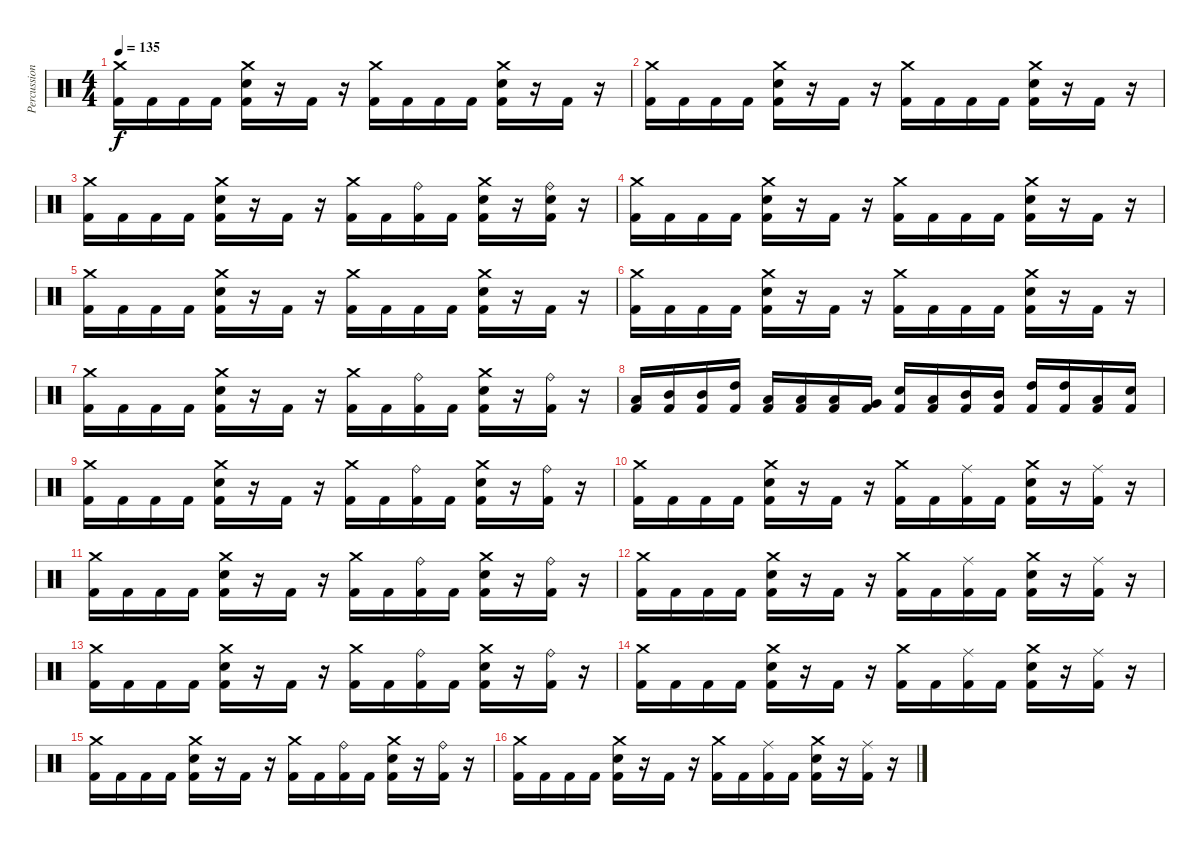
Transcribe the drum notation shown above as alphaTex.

\track ("Percussion" "Percussion") {instrument percussion}
\staff {score}
\articulation defaults
\ts (4 4)
\tempo 135
\clef neutral
\ks c
("Crash medium (hit)" "Kick (hit) 2").16{dy f} "Kick (hit) 2".16 "Kick (hit) 2".16 "Kick (hit) 2".16 ("Crash medium (hit)" "Electric Snare (hit)" "Kick (hit) 2").16 r.16 "Kick (hit) 2".16 r.16 ("Crash medium (hit)" "Kick (hit) 2").16 "Kick (hit) 2".16 "Kick (hit) 2".16 "Kick (hit) 2".16 ("Crash medium (hit)" "Electric Snare (hit)" "Kick (hit) 2").16 r.16 "Kick (hit) 2".16 r.16 |
("Crash medium (hit)" "Kick (hit) 2").16 "Kick (hit) 2".16 "Kick (hit) 2".16 "Kick (hit) 2".16 ("Crash medium (hit)" "Electric Snare (hit)" "Kick (hit) 2").16 r.16 "Kick (hit) 2".16 r.16 ("Crash medium (hit)" "Kick (hit) 2").16 "Kick (hit) 2".16 "Kick (hit) 2".16 "Kick (hit) 2".16 ("Crash medium (hit)" "Electric Snare (hit)" "Kick (hit) 2").16 r.16 "Kick (hit) 2".16 r.16 |
("Crash medium (hit)" "Kick (hit) 2").16 "Kick (hit) 2".16 "Kick (hit) 2".16 "Kick (hit) 2".16 ("Crash medium (hit)" "Electric Snare (hit)" "Kick (hit) 2").16 r.16 "Kick (hit) 2".16 r.16 ("Crash medium (hit)" "Kick (hit) 2").16 "Kick (hit) 2".16 ("Ride (bell)" "Kick (hit) 2").16 "Kick (hit) 2".16 ("Crash medium (hit)" "Electric Snare (hit)" "Kick (hit) 2").16 r.16 ("Ride (bell)" "Electric Snare (hit)" "Kick (hit) 2").16 r.16 |
("Crash medium (hit)" "Kick (hit) 2").16 "Kick (hit) 2".16 "Kick (hit) 2".16 "Kick (hit) 2".16 ("Crash medium (hit)" "Electric Snare (hit)" "Kick (hit) 2").16 r.16 "Kick (hit) 2".16 r.16 ("Crash medium (hit)" "Kick (hit) 2").16 "Kick (hit) 2".16 "Kick (hit) 2".16 "Kick (hit) 2".16 ("Crash medium (hit)" "Electric Snare (hit)" "Kick (hit) 2").16 r.16 "Kick (hit) 2".16 r.16 |
("Crash medium (hit)" "Kick (hit) 2").16 "Kick (hit) 2".16 "Kick (hit) 2".16 "Kick (hit) 2".16 ("Crash medium (hit)" "Electric Snare (hit)" "Kick (hit) 2").16 r.16 "Kick (hit) 2".16 r.16 ("Crash medium (hit)" "Kick (hit) 2").16 "Kick (hit) 2".16 "Kick (hit) 2".16 "Kick (hit) 2".16 ("Crash medium (hit)" "Electric Snare (hit)" "Kick (hit) 2").16 r.16 "Kick (hit) 2".16 r.16 |
("Crash medium (hit)" "Kick (hit) 2").16 "Kick (hit) 2".16 "Kick (hit) 2".16 "Kick (hit) 2".16 ("Crash medium (hit)" "Electric Snare (hit)" "Kick (hit) 2").16 r.16 "Kick (hit) 2".16 r.16 ("Crash medium (hit)" "Kick (hit) 2").16 "Kick (hit) 2".16 "Kick (hit) 2".16 "Kick (hit) 2".16 ("Crash medium (hit)" "Electric Snare (hit)" "Kick (hit) 2").16 r.16 "Kick (hit) 2".16 r.16 |
("Crash medium (hit)" "Kick (hit) 2").16 "Kick (hit) 2".16 "Kick (hit) 2".16 "Kick (hit) 2".16 ("Crash medium (hit)" "Electric Snare (hit)" "Kick (hit) 2").16 r.16 "Kick (hit) 2".16 r.16 ("Crash medium (hit)" "Kick (hit) 2").16 "Kick (hit) 2".16 ("Ride (bell)" "Kick (hit) 2").16 "Kick (hit) 2".16 ("Crash medium (hit)" "Electric Snare (hit)" "Kick (hit) 2").16 r.16 ("Ride (bell)" "Kick (hit) 2").16 r.16 |
("Low Tom (hit)" "Kick (hit) 2").16 ("Mid Tom (hit)" "Kick (hit) 2").16 ("Mid Tom (hit)" "Kick (hit) 2").16 ("High Tom (hit)" "Kick (hit) 2").16 ("Low Tom (hit)" "Kick (hit) 2").16 ("Low Floor Tom (hit)" "Kick (hit) 2").16 ("Low Floor Tom (hit)" "Kick (hit) 2").16 ("Very Low Tom (hit)" "Kick (hit) 2").16 ("Electric Snare (hit)" "Kick (hit) 2").16 ("Low Tom (hit)" "Kick (hit) 2").16 ("Mid Tom (hit)" "Kick (hit) 2").16 ("Mid Tom (hit)" "Kick (hit) 2").16 ("High Tom (hit)" "Kick (hit) 2").16 ("High Tom (hit)" "Kick (hit) 2").16 ("Low Tom (hit)" "Kick (hit) 2").16 ("Electric Snare (hit)" "Kick (hit) 2").16 |
("Crash medium (hit)" "Kick (hit) 2").16 "Kick (hit) 2".16 "Kick (hit) 2".16 "Kick (hit) 2".16 ("Crash medium (hit)" "Electric Snare (hit)" "Kick (hit) 2").16 r.16 "Kick (hit) 2".16 r.16 ("Crash medium (hit)" "Kick (hit) 2").16 "Kick (hit) 2".16 ("Ride (bell)" "Kick (hit) 2").16 "Kick (hit) 2".16 ("Crash medium (hit)" "Electric Snare (hit)" "Kick (hit) 2").16 r.16 ("Ride (bell)" "Kick (hit) 2").16 r.16 |
("Crash medium (hit)" "Kick (hit) 2").16 "Kick (hit) 2".16 "Kick (hit) 2".16 "Kick (hit) 2".16 ("Crash medium (hit)" "Electric Snare (hit)" "Kick (hit) 2").16 r.16 "Kick (hit) 2".16 r.16 ("Crash medium (hit)" "Kick (hit) 2").16 "Kick (hit) 2".16 ("Ride (middle)" "Kick (hit) 2").16 "Kick (hit) 2".16 ("Crash medium (hit)" "Electric Snare (hit)" "Kick (hit) 2").16 r.16 ("Ride (middle)" "Kick (hit) 2").16 r.16 |
("Crash medium (hit)" "Kick (hit) 2").16 "Kick (hit) 2".16 "Kick (hit) 2".16 "Kick (hit) 2".16 ("Crash medium (hit)" "Electric Snare (hit)" "Kick (hit) 2").16 r.16 "Kick (hit) 2".16 r.16 ("Crash medium (hit)" "Kick (hit) 2").16 "Kick (hit) 2".16 ("Ride (bell)" "Kick (hit) 2").16 "Kick (hit) 2".16 ("Crash medium (hit)" "Electric Snare (hit)" "Kick (hit) 2").16 r.16 ("Ride (bell)" "Kick (hit) 2").16 r.16 |
("Crash medium (hit)" "Kick (hit) 2").16 "Kick (hit) 2".16 "Kick (hit) 2".16 "Kick (hit) 2".16 ("Crash medium (hit)" "Electric Snare (hit)" "Kick (hit) 2").16 r.16 "Kick (hit) 2".16 r.16 ("Crash medium (hit)" "Kick (hit) 2").16 "Kick (hit) 2".16 ("Ride (middle)" "Kick (hit) 2").16 "Kick (hit) 2".16 ("Crash medium (hit)" "Electric Snare (hit)" "Kick (hit) 2").16 r.16 ("Ride (middle)" "Kick (hit) 2").16 r.16 |
("Crash medium (hit)" "Kick (hit) 2").16 "Kick (hit) 2".16 "Kick (hit) 2".16 "Kick (hit) 2".16 ("Crash medium (hit)" "Electric Snare (hit)" "Kick (hit) 2").16 r.16 "Kick (hit) 2".16 r.16 ("Crash medium (hit)" "Kick (hit) 2").16 "Kick (hit) 2".16 ("Ride (bell)" "Kick (hit) 2").16 "Kick (hit) 2".16 ("Crash medium (hit)" "Electric Snare (hit)" "Kick (hit) 2").16 r.16 ("Ride (bell)" "Kick (hit) 2").16 r.16 |
("Crash medium (hit)" "Kick (hit) 2").16 "Kick (hit) 2".16 "Kick (hit) 2".16 "Kick (hit) 2".16 ("Crash medium (hit)" "Electric Snare (hit)" "Kick (hit) 2").16 r.16 "Kick (hit) 2".16 r.16 ("Crash medium (hit)" "Kick (hit) 2").16 "Kick (hit) 2".16 ("Ride (middle)" "Kick (hit) 2").16 "Kick (hit) 2".16 ("Crash medium (hit)" "Electric Snare (hit)" "Kick (hit) 2").16 r.16 ("Ride (middle)" "Kick (hit) 2").16 r.16 |
("Crash medium (hit)" "Kick (hit) 2").16 "Kick (hit) 2".16 "Kick (hit) 2".16 "Kick (hit) 2".16 ("Crash medium (hit)" "Electric Snare (hit)" "Kick (hit) 2").16 r.16 "Kick (hit) 2".16 r.16 ("Crash medium (hit)" "Kick (hit) 2").16 "Kick (hit) 2".16 ("Ride (bell)" "Kick (hit) 2").16 "Kick (hit) 2".16 ("Crash medium (hit)" "Electric Snare (hit)" "Kick (hit) 2").16 r.16 ("Ride (bell)" "Kick (hit) 2").16 r.16 |
("Crash medium (hit)" "Kick (hit) 2").16 "Kick (hit) 2".16 "Kick (hit) 2".16 "Kick (hit) 2".16 ("Crash medium (hit)" "Electric Snare (hit)" "Kick (hit) 2").16 r.16 "Kick (hit) 2".16 r.16 ("Crash medium (hit)" "Kick (hit) 2").16 "Kick (hit) 2".16 ("Ride (middle)" "Kick (hit) 2").16 "Kick (hit) 2".16 ("Crash medium (hit)" "Electric Snare (hit)" "Kick (hit) 2").16 r.16 ("Ride (middle)" "Kick (hit) 2").16 r.16
